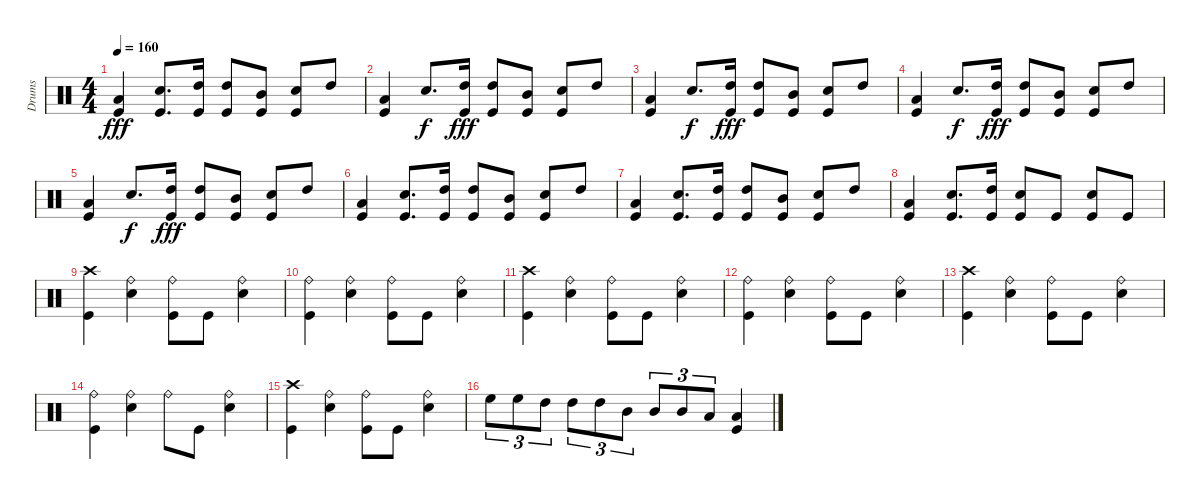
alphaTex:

\track ("Drums" "Drums") {instrument percussion}
\staff {score}
\articulation defaults
\ts (4 4)
\tempo 160
\clef neutral
\ks c
("Low Floor Tom (hit)" "Kick (hit)").4{dy fff} ("Snare (hit) 2" "Kick (hit)").8{d} ("High Tom (hit)" "Kick (hit)").16 ("High Tom (hit)" "Kick (hit)").8 ("Mid Tom (hit)" "Kick (hit)").8 ("Snare (hit) 2" "Kick (hit)").8 "High Tom (hit)".8 |
("Low Floor Tom (hit)" "Kick (hit)").4 "Snare (hit) 2".8{d dy f} ("High Tom (hit)" "Kick (hit)").16{dy fff} ("High Tom (hit)" "Kick (hit)").8 ("Mid Tom (hit)" "Kick (hit)").8 ("Snare (hit) 2" "Kick (hit)").8 "High Tom (hit)".8 |
("Low Floor Tom (hit)" "Kick (hit)").4 "Snare (hit) 2".8{d dy f} ("High Tom (hit)" "Kick (hit)").16{dy fff} ("High Tom (hit)" "Kick (hit)").8 ("Mid Tom (hit)" "Kick (hit)").8 ("Snare (hit) 2" "Kick (hit)").8 "High Tom (hit)".8 |
("Low Floor Tom (hit)" "Kick (hit)").4 "Snare (hit) 2".8{d dy f} ("High Tom (hit)" "Kick (hit)").16{dy fff} ("High Tom (hit)" "Kick (hit)").8 ("Mid Tom (hit)" "Kick (hit)").8 ("Snare (hit) 2" "Kick (hit)").8 "High Tom (hit)".8 |
("Low Floor Tom (hit)" "Kick (hit)").4 "Snare (hit) 2".8{d dy f} ("High Tom (hit)" "Kick (hit)").16{dy fff} ("High Tom (hit)" "Kick (hit)").8 ("Mid Tom (hit)" "Kick (hit)").8 ("Snare (hit) 2" "Kick (hit)").8 "High Tom (hit)".8 |
("Low Floor Tom (hit)" "Kick (hit)").4 ("Snare (hit) 2" "Kick (hit)").8{d} ("High Tom (hit)" "Kick (hit)").16 ("High Tom (hit)" "Kick (hit)").8 ("Mid Tom (hit)" "Kick (hit)").8 ("Snare (hit) 2" "Kick (hit)").8 "High Tom (hit)".8 |
("Low Floor Tom (hit)" "Kick (hit)").4 ("Snare (hit) 2" "Kick (hit)").8{d} ("High Tom (hit)" "Kick (hit)").16 ("High Tom (hit)" "Kick (hit)").8 ("Mid Tom (hit)" "Kick (hit)").8 ("Snare (hit) 2" "Kick (hit)").8 "High Tom (hit)".8 |
("Low Floor Tom (hit)" "Kick (hit)").4 ("Snare (hit) 2" "Kick (hit)").8{d} ("High Tom (hit)" "Kick (hit)").16 ("Snare (hit) 2" "Kick (hit)").8 "Kick (hit)".8 ("Snare (hit) 2" "Kick (hit)").8 "Kick (hit)".8 |
("Crash high (hit)" "Kick (hit)").4 ("Ride (bell)" "Snare (hit) 2").4 ("Ride (bell)" "Kick (hit)").8 "Kick (hit)".8 ("Ride (bell)" "Snare (hit) 2").4 |
("Ride (bell)" "Kick (hit)").4 ("Ride (bell)" "Snare (hit) 2").4 ("Ride (bell)" "Kick (hit)").8 "Kick (hit)".8 ("Ride (bell)" "Snare (hit) 2").4 |
("Crash high (hit)" "Kick (hit)").4 ("Ride (bell)" "Snare (hit) 2").4 ("Ride (bell)" "Kick (hit)").8 "Kick (hit)".8 ("Ride (bell)" "Snare (hit) 2").4 |
("Ride (bell)" "Kick (hit)").4 ("Ride (bell)" "Snare (hit) 2").4 ("Ride (bell)" "Kick (hit)").8 "Kick (hit)".8 ("Ride (bell)" "Snare (hit) 2").4 |
("Crash high (hit)" "Kick (hit)").4 ("Ride (bell)" "Snare (hit) 2").4 ("Ride (bell)" "Kick (hit)").8 "Kick (hit)".8 ("Ride (bell)" "Snare (hit) 2").4 |
("Ride (bell)" "Kick (hit)").4 ("Ride (bell)" "Snare (hit) 2").4 "Ride (bell)".8 "Kick (hit)".8 ("Ride (bell)" "Snare (hit) 2").4 |
("Crash high (hit)" "Kick (hit)").4 ("Ride (bell)" "Snare (hit) 2").4 ("Ride (bell)" "Kick (hit)").8 "Kick (hit)".8 ("Ride (bell)" "Snare (hit) 2").4 |
"High Floor Tom (hit)".8{tu (3 2)} "High Floor Tom (hit)".8{tu (3 2)} "High Tom (hit)".8{tu (3 2)} "High Tom (hit)".8{tu (3 2)} "High Tom (hit)".8{tu (3 2)} "Mid Tom (hit)".8{tu (3 2)} "Mid Tom (hit)".8{tu (3 2)} "Mid Tom (hit)".8{tu (3 2)} "Low Tom (hit)".8{tu (3 2)} ("Low Tom (hit)" "Kick (hit)").4
